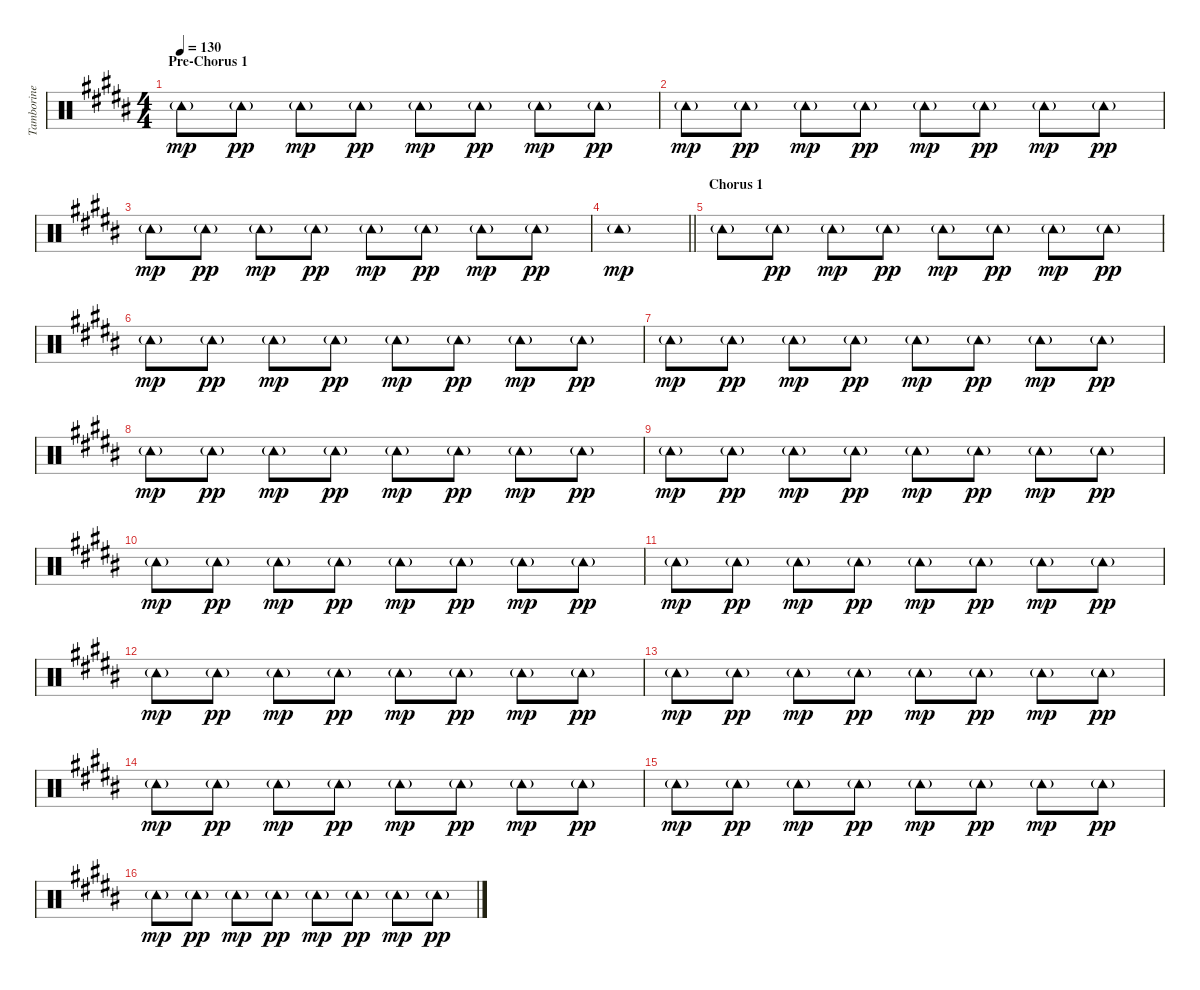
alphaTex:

\track ("Tamborine" "Tamborine") {instrument percussion}
\staff {score}
\articulation defaults
\ts (4 4)
\section ("" "Pre-Chorus 1")
\tempo 130
\clef neutral
\ks b "Tambourine (hit)"{g}.8{dy mp} "Tambourine (hit)"{g}.8{dy pp} "Tambourine (hit)"{g}.8{dy mp} "Tambourine (hit)"{g}.8{dy pp} "Tambourine (hit)"{g}.8{dy mp} "Tambourine (hit)"{g}.8{dy pp} "Tambourine (hit)"{g}.8{dy mp} "Tambourine (hit)"{g}.8{dy pp}
|
"Tambourine (hit)"{g}.8{dy mp} "Tambourine (hit)"{g}.8{dy pp} "Tambourine (hit)"{g}.8{dy mp} "Tambourine (hit)"{g}.8{dy pp} "Tambourine (hit)"{g}.8{dy mp} "Tambourine (hit)"{g}.8{dy pp} "Tambourine (hit)"{g}.8{dy mp} "Tambourine (hit)"{g}.8{dy pp} |
"Tambourine (hit)"{g}.8{dy mp} "Tambourine (hit)"{g}.8{dy pp} "Tambourine (hit)"{g}.8{dy mp} "Tambourine (hit)"{g}.8{dy pp} "Tambourine (hit)"{g}.8{dy mp} "Tambourine (hit)"{g}.8{dy pp} "Tambourine (hit)"{g}.8{dy mp} "Tambourine (hit)"{g}.8{dy pp} |
\barLineRight lightlight "Tambourine (hit)"{g}.1{dy mp}
|
\section ("" "Chorus 1")
"Tambourine (hit)"{g}.8 "Tambourine (hit)"{g}.8{dy pp} "Tambourine (hit)"{g}.8{dy mp} "Tambourine (hit)"{g}.8{dy pp} "Tambourine (hit)"{g}.8{dy mp} "Tambourine (hit)"{g}.8{dy pp} "Tambourine (hit)"{g}.8{dy mp} "Tambourine (hit)"{g}.8{dy pp} |
"Tambourine (hit)"{g}.8{dy mp} "Tambourine (hit)"{g}.8{dy pp} "Tambourine (hit)"{g}.8{dy mp} "Tambourine (hit)"{g}.8{dy pp} "Tambourine (hit)"{g}.8{dy mp} "Tambourine (hit)"{g}.8{dy pp} "Tambourine (hit)"{g}.8{dy mp} "Tambourine (hit)"{g}.8{dy pp} |
"Tambourine (hit)"{g}.8{dy mp} "Tambourine (hit)"{g}.8{dy pp} "Tambourine (hit)"{g}.8{dy mp} "Tambourine (hit)"{g}.8{dy pp} "Tambourine (hit)"{g}.8{dy mp} "Tambourine (hit)"{g}.8{dy pp} "Tambourine (hit)"{g}.8{dy mp} "Tambourine (hit)"{g}.8{dy pp} |
"Tambourine (hit)"{g}.8{dy mp} "Tambourine (hit)"{g}.8{dy pp} "Tambourine (hit)"{g}.8{dy mp} "Tambourine (hit)"{g}.8{dy pp} "Tambourine (hit)"{g}.8{dy mp} "Tambourine (hit)"{g}.8{dy pp} "Tambourine (hit)"{g}.8{dy mp} "Tambourine (hit)"{g}.8{dy pp} |
"Tambourine (hit)"{g}.8{dy mp} "Tambourine (hit)"{g}.8{dy pp} "Tambourine (hit)"{g}.8{dy mp} "Tambourine (hit)"{g}.8{dy pp} "Tambourine (hit)"{g}.8{dy mp} "Tambourine (hit)"{g}.8{dy pp} "Tambourine (hit)"{g}.8{dy mp} "Tambourine (hit)"{g}.8{dy pp} |
"Tambourine (hit)"{g}.8{dy mp} "Tambourine (hit)"{g}.8{dy pp} "Tambourine (hit)"{g}.8{dy mp} "Tambourine (hit)"{g}.8{dy pp} "Tambourine (hit)"{g}.8{dy mp} "Tambourine (hit)"{g}.8{dy pp} "Tambourine (hit)"{g}.8{dy mp} "Tambourine (hit)"{g}.8{dy pp} |
"Tambourine (hit)"{g}.8{dy mp} "Tambourine (hit)"{g}.8{dy pp} "Tambourine (hit)"{g}.8{dy mp} "Tambourine (hit)"{g}.8{dy pp} "Tambourine (hit)"{g}.8{dy mp} "Tambourine (hit)"{g}.8{dy pp} "Tambourine (hit)"{g}.8{dy mp} "Tambourine (hit)"{g}.8{dy pp} |
"Tambourine (hit)"{g}.8{dy mp} "Tambourine (hit)"{g}.8{dy pp} "Tambourine (hit)"{g}.8{dy mp} "Tambourine (hit)"{g}.8{dy pp} "Tambourine (hit)"{g}.8{dy mp} "Tambourine (hit)"{g}.8{dy pp} "Tambourine (hit)"{g}.8{dy mp} "Tambourine (hit)"{g}.8{dy pp} |
"Tambourine (hit)"{g}.8{dy mp} "Tambourine (hit)"{g}.8{dy pp} "Tambourine (hit)"{g}.8{dy mp} "Tambourine (hit)"{g}.8{dy pp} "Tambourine (hit)"{g}.8{dy mp} "Tambourine (hit)"{g}.8{dy pp} "Tambourine (hit)"{g}.8{dy mp} "Tambourine (hit)"{g}.8{dy pp} |
"Tambourine (hit)"{g}.8{dy mp} "Tambourine (hit)"{g}.8{dy pp} "Tambourine (hit)"{g}.8{dy mp} "Tambourine (hit)"{g}.8{dy pp} "Tambourine (hit)"{g}.8{dy mp} "Tambourine (hit)"{g}.8{dy pp} "Tambourine (hit)"{g}.8{dy mp} "Tambourine (hit)"{g}.8{dy pp} |
"Tambourine (hit)"{g}.8{dy mp} "Tambourine (hit)"{g}.8{dy pp} "Tambourine (hit)"{g}.8{dy mp} "Tambourine (hit)"{g}.8{dy pp} "Tambourine (hit)"{g}.8{dy mp} "Tambourine (hit)"{g}.8{dy pp} "Tambourine (hit)"{g}.8{dy mp} "Tambourine (hit)"{g}.8{dy pp} |
"Tambourine (hit)"{g}.8{dy mp} "Tambourine (hit)"{g}.8{dy pp} "Tambourine (hit)"{g}.8{dy mp} "Tambourine (hit)"{g}.8{dy pp} "Tambourine (hit)"{g}.8{dy mp} "Tambourine (hit)"{g}.8{dy pp} "Tambourine (hit)"{g}.8{dy mp} "Tambourine (hit)"{g}.8{dy pp}
